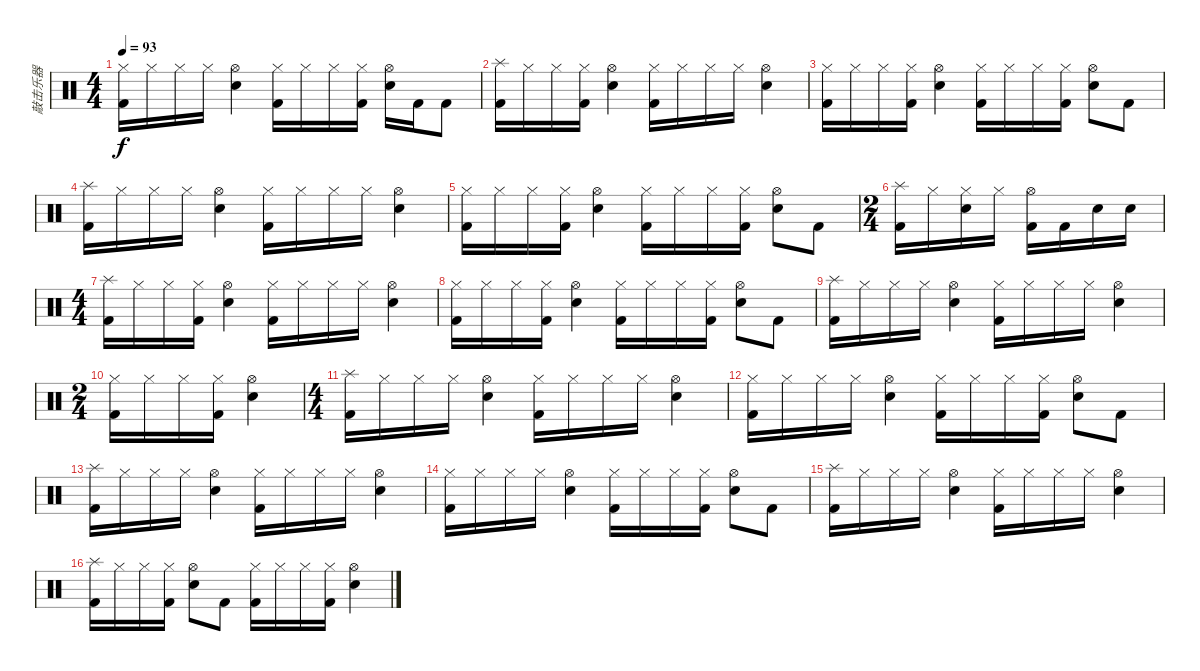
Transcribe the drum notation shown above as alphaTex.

\track ("敲击乐器" "敲击乐器") {instrument percussion}
\staff {score}
\articulation defaults
\ts (4 4)
\tempo 93
\clef neutral
\ks c
("Hi-Hat (closed)" "Kick (hit) 2").16{dy f} "Hi-Hat (closed)".16 "Hi-Hat (closed)".16 "Hi-Hat (closed)".16 ("Hi-Hat (open)" "Metronome (bell)").4 ("Hi-Hat (closed)" "Kick (hit) 2").16 "Hi-Hat (closed)".16 "Hi-Hat (closed)".16 ("Hi-Hat (closed)" "Kick (hit) 2").16 ("Hi-Hat (open)" "Metronome (bell)").16 "Kick (hit) 2".16 "Kick (hit) 2".8 |
("Splash (hit)" "Kick (hit) 2").16 "Hi-Hat (closed)".16 "Hi-Hat (closed)".16 ("Hi-Hat (closed)" "Kick (hit) 2").16 ("Hi-Hat (open)" "Metronome (bell)").4 ("Hi-Hat (closed)" "Kick (hit) 2").16 "Hi-Hat (closed)".16 "Hi-Hat (closed)".16 "Hi-Hat (closed)".16 ("Hi-Hat (open)" "Metronome (bell)").4 |
("Hi-Hat (closed)" "Kick (hit) 2").16 "Hi-Hat (closed)".16 "Hi-Hat (closed)".16 ("Hi-Hat (closed)" "Kick (hit) 2").16 ("Hi-Hat (open)" "Metronome (bell)").4 ("Hi-Hat (closed)" "Kick (hit) 2").16 "Hi-Hat (closed)".16 "Hi-Hat (closed)".16 ("Hi-Hat (closed)" "Kick (hit) 2").16 ("Hi-Hat (open)" "Metronome (bell)").8 "Kick (hit) 2".8 |
("Splash (hit)" "Kick (hit) 2").16 "Hi-Hat (closed)".16 "Hi-Hat (closed)".16 "Hi-Hat (closed)".16 ("Hi-Hat (open)" "Metronome (bell)").4 ("Hi-Hat (closed)" "Kick (hit) 2").16 "Hi-Hat (closed)".16 "Hi-Hat (closed)".16 "Hi-Hat (closed)".16 ("Hi-Hat (open)" "Metronome (bell)").4 |
("Hi-Hat (closed)" "Kick (hit) 2").16 "Hi-Hat (closed)".16 "Hi-Hat (closed)".16 ("Hi-Hat (closed)" "Kick (hit) 2").16 ("Hi-Hat (open)" "Metronome (bell)").4 ("Hi-Hat (closed)" "Kick (hit) 2").16 "Hi-Hat (closed)".16 "Hi-Hat (closed)".16 ("Hi-Hat (closed)" "Kick (hit) 2").16 ("Hi-Hat (open)" "Metronome (bell)").8 "Kick (hit) 2".8 |
\ts (2 4)
("Splash (hit)" "Kick (hit) 2").16 "Hi-Hat (closed)".16 ("Hi-Hat (closed)" "Metronome (bell)").16 "Hi-Hat (closed)".16 ("Hi-Hat (open)" "Kick (hit) 2").16 "Kick (hit) 2".16 "Metronome (bell)".16 "Metronome (bell)".16 |
\ts (4 4)
("Splash (hit)" "Kick (hit) 2").16 "Hi-Hat (closed)".16 "Hi-Hat (closed)".16 ("Hi-Hat (closed)" "Kick (hit) 2").16 ("Hi-Hat (open)" "Metronome (bell)").4 ("Hi-Hat (closed)" "Kick (hit) 2").16 "Hi-Hat (closed)".16 "Hi-Hat (closed)".16 "Hi-Hat (closed)".16 ("Hi-Hat (open)" "Metronome (bell)").4 |
("Hi-Hat (closed)" "Kick (hit) 2").16 "Hi-Hat (closed)".16 "Hi-Hat (closed)".16 ("Hi-Hat (closed)" "Kick (hit) 2").16 ("Hi-Hat (open)" "Metronome (bell)").4 ("Hi-Hat (closed)" "Kick (hit) 2").16 "Hi-Hat (closed)".16 "Hi-Hat (closed)".16 ("Hi-Hat (closed)" "Kick (hit) 2").16 ("Hi-Hat (open)" "Metronome (bell)").8 "Kick (hit) 2".8 |
("Splash (hit)" "Kick (hit) 2").16 "Hi-Hat (closed)".16 "Hi-Hat (closed)".16 "Hi-Hat (closed)".16 ("Hi-Hat (open)" "Metronome (bell)").4 ("Hi-Hat (closed)" "Kick (hit) 2").16 "Hi-Hat (closed)".16 "Hi-Hat (closed)".16 "Hi-Hat (closed)".16 ("Hi-Hat (open)" "Metronome (bell)").4 |
\ts (2 4)
("Hi-Hat (closed)" "Kick (hit) 2").16 "Hi-Hat (closed)".16 "Hi-Hat (closed)".16 ("Hi-Hat (closed)" "Kick (hit) 2").16 ("Hi-Hat (open)" "Metronome (bell)").4 |
\ts (4 4)
("Splash (hit)" "Kick (hit) 2").16 "Hi-Hat (closed)".16 "Hi-Hat (closed)".16 "Hi-Hat (closed)".16 ("Hi-Hat (open)" "Metronome (bell)").4 ("Hi-Hat (closed)" "Kick (hit) 2").16 "Hi-Hat (closed)".16 "Hi-Hat (closed)".16 "Hi-Hat (closed)".16 ("Hi-Hat (open)" "Metronome (bell)").4 |
("Hi-Hat (closed)" "Kick (hit) 2").16 "Hi-Hat (closed)".16 "Hi-Hat (closed)".16 "Hi-Hat (closed)".16 ("Hi-Hat (open)" "Metronome (bell)").4 ("Hi-Hat (closed)" "Kick (hit) 2").16 "Hi-Hat (closed)".16 "Hi-Hat (closed)".16 ("Hi-Hat (closed)" "Kick (hit) 2").16 ("Hi-Hat (open)" "Metronome (bell)").8 "Kick (hit) 2".8 |
("Splash (hit)" "Kick (hit) 2").16 "Hi-Hat (closed)".16 "Hi-Hat (closed)".16 "Hi-Hat (closed)".16 ("Hi-Hat (open)" "Metronome (bell)").4 ("Hi-Hat (closed)" "Kick (hit) 2").16 "Hi-Hat (closed)".16 "Hi-Hat (closed)".16 "Hi-Hat (closed)".16 ("Hi-Hat (open)" "Metronome (bell)").4 |
("Hi-Hat (closed)" "Kick (hit) 2").16 "Hi-Hat (closed)".16 "Hi-Hat (closed)".16 "Hi-Hat (closed)".16 ("Hi-Hat (open)" "Metronome (bell)").4 ("Hi-Hat (closed)" "Kick (hit) 2").16 "Hi-Hat (closed)".16 "Hi-Hat (closed)".16 ("Hi-Hat (closed)" "Kick (hit) 2").16 ("Hi-Hat (open)" "Metronome (bell)").8 "Kick (hit) 2".8 |
("Splash (hit)" "Kick (hit) 2").16 "Hi-Hat (closed)".16 "Hi-Hat (closed)".16 "Hi-Hat (closed)".16 ("Hi-Hat (open)" "Metronome (bell)").4 ("Hi-Hat (closed)" "Kick (hit) 2").16 "Hi-Hat (closed)".16 "Hi-Hat (closed)".16 "Hi-Hat (closed)".16 ("Hi-Hat (open)" "Metronome (bell)").4 |
("Splash (hit)" "Kick (hit) 2").16 "Hi-Hat (closed)".16 "Hi-Hat (closed)".16 ("Hi-Hat (closed)" "Kick (hit) 2").16 ("Hi-Hat (open)" "Metronome (bell)").8 "Kick (hit) 2".8 ("Hi-Hat (closed)" "Kick (hit) 2").16 "Hi-Hat (closed)".16 "Hi-Hat (closed)".16 ("Hi-Hat (closed)" "Kick (hit) 2").16 ("Hi-Hat (open)" "Metronome (bell)").4
